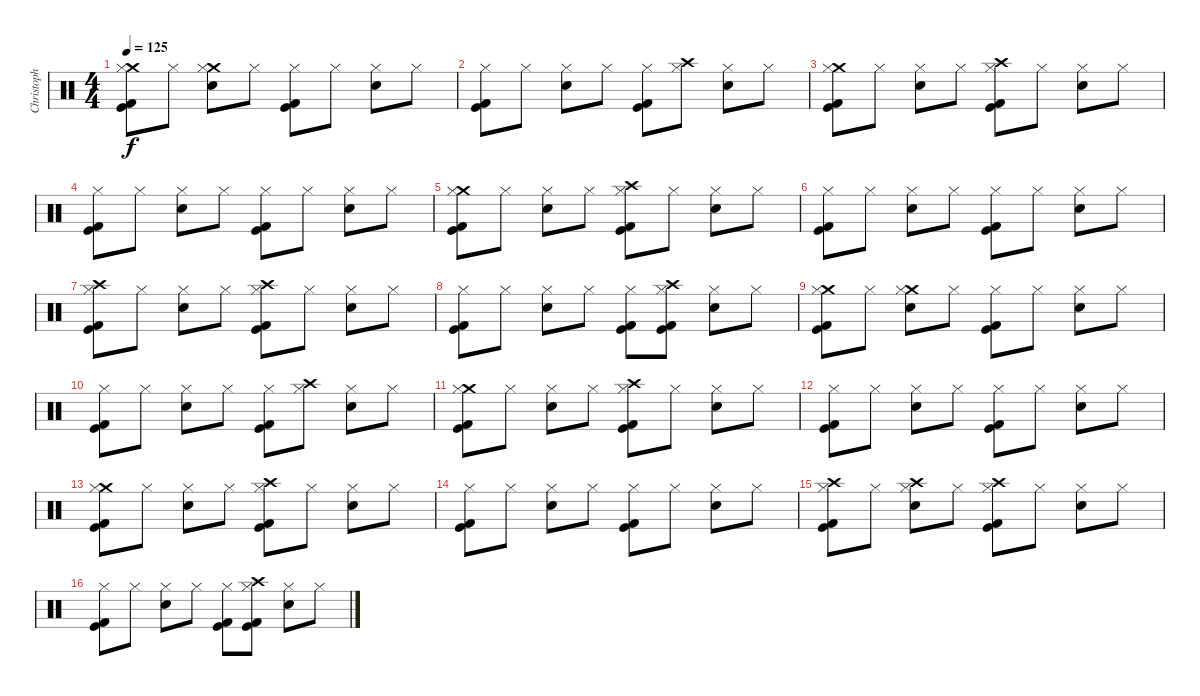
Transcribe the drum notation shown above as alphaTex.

\track ("Christoph (Drums)" "Christoph ") {instrument percussion}
\staff {score}
\articulation defaults
\ts (4 4)
\tempo 125
\clef neutral
\ks c
("Crash medium (hit)" "Hi-Hat (closed)" "Kick (hit) 2" "Kick (hit)").8{dy f} "Hi-Hat (closed)".8 ("Crash medium (hit)" "Hi-Hat (closed)" "Snare (hit) 2").8 "Hi-Hat (closed)".8 ("Hi-Hat (closed)" "Kick (hit) 2" "Kick (hit)").8 "Hi-Hat (closed)".8 ("Hi-Hat (closed)" "Snare (hit) 2").8 "Hi-Hat (closed)".8 |
("Hi-Hat (closed)" "Kick (hit) 2" "Kick (hit)").8 "Hi-Hat (closed)".8 ("Hi-Hat (closed)" "Snare (hit) 2").8 "Hi-Hat (closed)".8 ("Hi-Hat (closed)" "Kick (hit) 2" "Kick (hit)").8 ("Crash high (hit)" "Hi-Hat (closed)").8 ("Hi-Hat (closed)" "Snare (hit) 2").8 "Hi-Hat (closed)".8 |
("Crash medium (hit)" "Hi-Hat (closed)" "Kick (hit) 2" "Kick (hit)").8 "Hi-Hat (closed)".8 ("Hi-Hat (closed)" "Snare (hit) 2").8 "Hi-Hat (closed)".8 ("Crash high (hit)" "Hi-Hat (closed)" "Kick (hit) 2" "Kick (hit)").8 "Hi-Hat (closed)".8 ("Hi-Hat (closed)" "Snare (hit) 2").8 "Hi-Hat (closed)".8 |
("Hi-Hat (closed)" "Kick (hit) 2" "Kick (hit)").8 "Hi-Hat (closed)".8 ("Hi-Hat (closed)" "Snare (hit) 2").8 "Hi-Hat (closed)".8 ("Hi-Hat (closed)" "Kick (hit) 2" "Kick (hit)").8 "Hi-Hat (closed)".8 ("Hi-Hat (closed)" "Snare (hit) 2").8 "Hi-Hat (closed)".8 |
("Crash medium (hit)" "Hi-Hat (closed)" "Kick (hit) 2" "Kick (hit)").8 "Hi-Hat (closed)".8 ("Hi-Hat (closed)" "Snare (hit) 2").8 "Hi-Hat (closed)".8 ("Crash high (hit)" "Hi-Hat (closed)" "Kick (hit) 2" "Kick (hit)").8 "Hi-Hat (closed)".8 ("Hi-Hat (closed)" "Snare (hit) 2").8 "Hi-Hat (closed)".8 |
("Hi-Hat (closed)" "Kick (hit) 2" "Kick (hit)").8 "Hi-Hat (closed)".8 ("Hi-Hat (closed)" "Snare (hit) 2").8 "Hi-Hat (closed)".8 ("Hi-Hat (closed)" "Kick (hit) 2" "Kick (hit)").8 "Hi-Hat (closed)".8 ("Hi-Hat (closed)" "Snare (hit) 2").8 "Hi-Hat (closed)".8 |
("Crash high (hit)" "Hi-Hat (closed)" "Kick (hit) 2" "Kick (hit)").8 "Hi-Hat (closed)".8 ("Hi-Hat (closed)" "Snare (hit) 2").8 "Hi-Hat (closed)".8 ("Crash high (hit)" "Hi-Hat (closed)" "Kick (hit) 2" "Kick (hit)").8 "Hi-Hat (closed)".8 ("Hi-Hat (closed)" "Snare (hit) 2").8 "Hi-Hat (closed)".8 |
("Hi-Hat (closed)" "Kick (hit) 2" "Kick (hit)").8 "Hi-Hat (closed)".8 ("Hi-Hat (closed)" "Snare (hit) 2").8 "Hi-Hat (closed)".8 ("Hi-Hat (closed)" "Kick (hit) 2" "Kick (hit)").8 ("Crash high (hit)" "Hi-Hat (closed)" "Kick (hit) 2" "Kick (hit)").8 ("Hi-Hat (closed)" "Snare (hit) 2").8 "Hi-Hat (closed)".8 |
("Crash medium (hit)" "Hi-Hat (closed)" "Kick (hit) 2" "Kick (hit)").8 "Hi-Hat (closed)".8 ("Crash medium (hit)" "Hi-Hat (closed)" "Snare (hit) 2").8 "Hi-Hat (closed)".8 ("Hi-Hat (closed)" "Kick (hit) 2" "Kick (hit)").8 "Hi-Hat (closed)".8 ("Hi-Hat (closed)" "Snare (hit) 2").8 "Hi-Hat (closed)".8 |
("Hi-Hat (closed)" "Kick (hit) 2" "Kick (hit)").8 "Hi-Hat (closed)".8 ("Hi-Hat (closed)" "Snare (hit) 2").8 "Hi-Hat (closed)".8 ("Hi-Hat (closed)" "Kick (hit) 2" "Kick (hit)").8 ("Crash high (hit)" "Hi-Hat (closed)").8 ("Hi-Hat (closed)" "Snare (hit) 2").8 "Hi-Hat (closed)".8 |
("Crash medium (hit)" "Hi-Hat (closed)" "Kick (hit) 2" "Kick (hit)").8 "Hi-Hat (closed)".8 ("Hi-Hat (closed)" "Snare (hit) 2").8 "Hi-Hat (closed)".8 ("Crash high (hit)" "Hi-Hat (closed)" "Kick (hit) 2" "Kick (hit)").8 "Hi-Hat (closed)".8 ("Hi-Hat (closed)" "Snare (hit) 2").8 "Hi-Hat (closed)".8 |
("Hi-Hat (closed)" "Kick (hit) 2" "Kick (hit)").8 "Hi-Hat (closed)".8 ("Hi-Hat (closed)" "Snare (hit) 2").8 "Hi-Hat (closed)".8 ("Hi-Hat (closed)" "Kick (hit) 2" "Kick (hit)").8 "Hi-Hat (closed)".8 ("Hi-Hat (closed)" "Snare (hit) 2").8 "Hi-Hat (closed)".8 |
("Crash medium (hit)" "Hi-Hat (closed)" "Kick (hit) 2" "Kick (hit)").8 "Hi-Hat (closed)".8 ("Hi-Hat (closed)" "Snare (hit) 2").8 "Hi-Hat (closed)".8 ("Crash high (hit)" "Hi-Hat (closed)" "Kick (hit) 2" "Kick (hit)").8 "Hi-Hat (closed)".8 ("Hi-Hat (closed)" "Snare (hit) 2").8 "Hi-Hat (closed)".8 |
("Hi-Hat (closed)" "Kick (hit) 2" "Kick (hit)").8 "Hi-Hat (closed)".8 ("Hi-Hat (closed)" "Snare (hit) 2").8 "Hi-Hat (closed)".8 ("Hi-Hat (closed)" "Kick (hit) 2" "Kick (hit)").8 "Hi-Hat (closed)".8 ("Hi-Hat (closed)" "Snare (hit) 2").8 "Hi-Hat (closed)".8 |
("Crash high (hit)" "Hi-Hat (closed)" "Kick (hit) 2" "Kick (hit)").8 "Hi-Hat (closed)".8 ("Crash high (hit)" "Hi-Hat (closed)" "Snare (hit) 2").8 "Hi-Hat (closed)".8 ("Crash high (hit)" "Hi-Hat (closed)" "Kick (hit) 2" "Kick (hit)").8 "Hi-Hat (closed)".8 ("Hi-Hat (closed)" "Snare (hit) 2").8 "Hi-Hat (closed)".8 |
("Hi-Hat (closed)" "Kick (hit) 2" "Kick (hit)").8 "Hi-Hat (closed)".8 ("Hi-Hat (closed)" "Snare (hit) 2").8 "Hi-Hat (closed)".8 ("Hi-Hat (closed)" "Kick (hit) 2" "Kick (hit)").8 ("Crash high (hit)" "Hi-Hat (closed)" "Kick (hit) 2" "Kick (hit)").8 ("Hi-Hat (closed)" "Snare (hit) 2").8 "Hi-Hat (closed)".8
